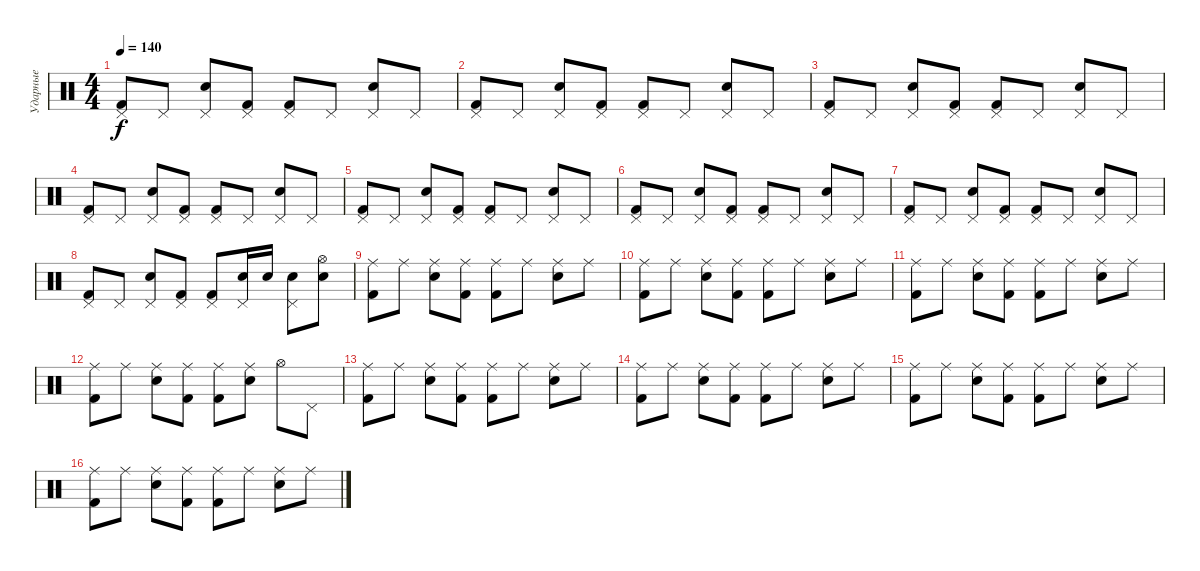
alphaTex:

\track ("Ударные" "Ударные") {instrument percussion}
\staff {score}
\articulation defaults
\ts (4 4)
\tempo 140
\clef neutral
\ks c
("Kick (hit) 2" "Pedal Hi-Hat (hit)").8{dy f} "Pedal Hi-Hat (hit)".8 ("Pedal Hi-Hat (hit)" "Electric Snare (hit)").8 ("Kick (hit) 2" "Pedal Hi-Hat (hit)").8 ("Kick (hit) 2" "Pedal Hi-Hat (hit)").8 "Pedal Hi-Hat (hit)".8 ("Pedal Hi-Hat (hit)" "Electric Snare (hit)").8 "Pedal Hi-Hat (hit)".8 |
("Kick (hit) 2" "Pedal Hi-Hat (hit)").8 "Pedal Hi-Hat (hit)".8 ("Pedal Hi-Hat (hit)" "Electric Snare (hit)").8 ("Kick (hit) 2" "Pedal Hi-Hat (hit)").8 ("Kick (hit) 2" "Pedal Hi-Hat (hit)").8 "Pedal Hi-Hat (hit)".8 ("Pedal Hi-Hat (hit)" "Electric Snare (hit)").8 "Pedal Hi-Hat (hit)".8 |
("Kick (hit) 2" "Pedal Hi-Hat (hit)").8 "Pedal Hi-Hat (hit)".8 ("Pedal Hi-Hat (hit)" "Electric Snare (hit)").8 ("Kick (hit) 2" "Pedal Hi-Hat (hit)").8 ("Kick (hit) 2" "Pedal Hi-Hat (hit)").8 "Pedal Hi-Hat (hit)".8 ("Pedal Hi-Hat (hit)" "Electric Snare (hit)").8 "Pedal Hi-Hat (hit)".8 |
("Kick (hit) 2" "Pedal Hi-Hat (hit)").8 "Pedal Hi-Hat (hit)".8 ("Pedal Hi-Hat (hit)" "Electric Snare (hit)").8 ("Kick (hit) 2" "Pedal Hi-Hat (hit)").8 ("Kick (hit) 2" "Pedal Hi-Hat (hit)").8 "Pedal Hi-Hat (hit)".8 ("Pedal Hi-Hat (hit)" "Electric Snare (hit)").8 "Pedal Hi-Hat (hit)".8 |
("Kick (hit) 2" "Pedal Hi-Hat (hit)").8 "Pedal Hi-Hat (hit)".8 ("Pedal Hi-Hat (hit)" "Electric Snare (hit)").8 ("Kick (hit) 2" "Pedal Hi-Hat (hit)").8 ("Kick (hit) 2" "Pedal Hi-Hat (hit)").8 "Pedal Hi-Hat (hit)".8 ("Pedal Hi-Hat (hit)" "Electric Snare (hit)").8 "Pedal Hi-Hat (hit)".8 |
("Kick (hit) 2" "Pedal Hi-Hat (hit)").8 "Pedal Hi-Hat (hit)".8 ("Pedal Hi-Hat (hit)" "Electric Snare (hit)").8 ("Kick (hit) 2" "Pedal Hi-Hat (hit)").8 ("Kick (hit) 2" "Pedal Hi-Hat (hit)").8 "Pedal Hi-Hat (hit)".8 ("Pedal Hi-Hat (hit)" "Electric Snare (hit)").8 "Pedal Hi-Hat (hit)".8 |
("Kick (hit) 2" "Pedal Hi-Hat (hit)").8 "Pedal Hi-Hat (hit)".8 ("Pedal Hi-Hat (hit)" "Electric Snare (hit)").8 ("Kick (hit) 2" "Pedal Hi-Hat (hit)").8 ("Kick (hit) 2" "Pedal Hi-Hat (hit)").8 "Pedal Hi-Hat (hit)".8 ("Pedal Hi-Hat (hit)" "Electric Snare (hit)").8 "Pedal Hi-Hat (hit)".8 |
("Kick (hit) 2" "Pedal Hi-Hat (hit)").8 "Pedal Hi-Hat (hit)".8 ("Pedal Hi-Hat (hit)" "Electric Snare (hit)").8 ("Kick (hit) 2" "Pedal Hi-Hat (hit)").8 ("Kick (hit) 2" "Pedal Hi-Hat (hit)").8 ("Pedal Hi-Hat (hit)" "Electric Snare (hit)").16 "Electric Snare (hit)".16 ("Pedal Hi-Hat (hit)" "Electric Snare (hit)").8 ("Hi-Hat (open)" "Electric Snare (hit)").8 |
("Kick (hit) 2" "Ride (middle)").8 "Ride (middle)".8 ("Ride (middle)" "Electric Snare (hit)").8 ("Kick (hit) 2" "Ride (middle)").8 ("Kick (hit) 2" "Ride (middle)").8 "Ride (middle)".8 ("Ride (middle)" "Electric Snare (hit)").8 "Ride (middle)".8 |
("Kick (hit) 2" "Ride (middle)").8 "Ride (middle)".8 ("Ride (middle)" "Electric Snare (hit)").8 ("Kick (hit) 2" "Ride (middle)").8 ("Kick (hit) 2" "Ride (middle)").8 "Ride (middle)".8 ("Ride (middle)" "Electric Snare (hit)").8 "Ride (middle)".8 |
("Kick (hit) 2" "Ride (middle)").8 "Ride (middle)".8 ("Ride (middle)" "Electric Snare (hit)").8 ("Kick (hit) 2" "Ride (middle)").8 ("Kick (hit) 2" "Ride (middle)").8 "Ride (middle)".8 ("Ride (middle)" "Electric Snare (hit)").8 "Ride (middle)".8 |
("Kick (hit) 2" "Ride (middle)").8 "Ride (middle)".8 ("Ride (middle)" "Electric Snare (hit)").8 ("Kick (hit) 2" "Ride (middle)").8 ("Kick (hit) 2" "Ride (middle)").8 ("Ride (middle)" "Electric Snare (hit)").8 "Hi-Hat (open)".8 "Pedal Hi-Hat (hit)".8 |
("Kick (hit) 2" "Ride (middle)").8 "Ride (middle)".8 ("Ride (middle)" "Electric Snare (hit)").8 ("Kick (hit) 2" "Ride (middle)").8 ("Kick (hit) 2" "Ride (middle)").8 "Ride (middle)".8 ("Ride (middle)" "Electric Snare (hit)").8 "Ride (middle)".8 |
("Kick (hit) 2" "Ride (middle)").8 "Ride (middle)".8 ("Ride (middle)" "Electric Snare (hit)").8 ("Kick (hit) 2" "Ride (middle)").8 ("Kick (hit) 2" "Ride (middle)").8 "Ride (middle)".8 ("Ride (middle)" "Electric Snare (hit)").8 "Ride (middle)".8 |
("Kick (hit) 2" "Ride (middle)").8 "Ride (middle)".8 ("Ride (middle)" "Electric Snare (hit)").8 ("Kick (hit) 2" "Ride (middle)").8 ("Kick (hit) 2" "Ride (middle)").8 "Ride (middle)".8 ("Ride (middle)" "Electric Snare (hit)").8 "Ride (middle)".8 |
("Kick (hit) 2" "Ride (middle)").8 "Ride (middle)".8 ("Ride (middle)" "Electric Snare (hit)").8 ("Kick (hit) 2" "Ride (middle)").8 ("Kick (hit) 2" "Ride (middle)").8 "Ride (middle)".8 ("Ride (middle)" "Electric Snare (hit)").8 "Ride (middle)".8
